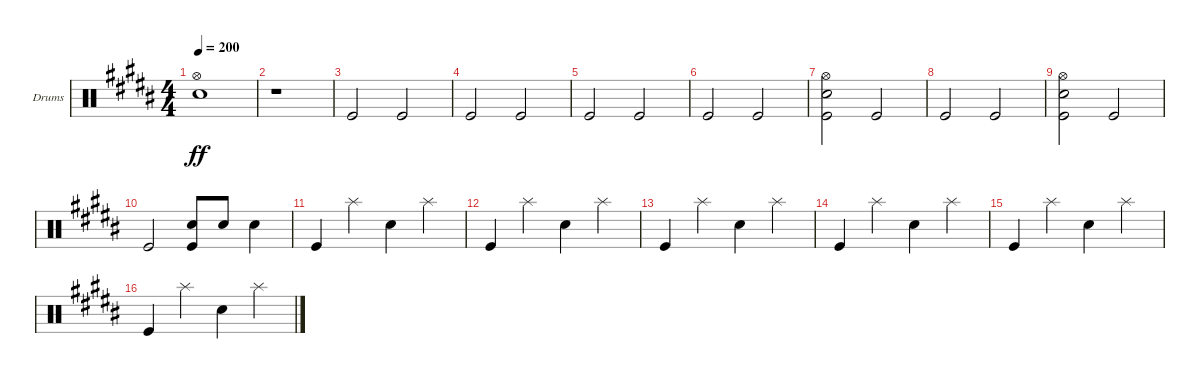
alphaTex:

\defaultSystemsLayout 4
\bracketExtendMode groupsimilarinstruments
\firstSystemTrackNameOrientation horizontal
\otherSystemsTrackNameOrientation horizontal
\track ("Drumkit" "Drums") {instrument percussion}
\staff {score}
\articulation defaults
\ts (4 4)
\tempo 200
\clef neutral
\ks b
("Hi-Hat (open)" "Snare (hit) 2").1{dy ff} |
r.1 |
"Kick (hit)".2 "Kick (hit)".2 |
"Kick (hit)".2 "Kick (hit)".2 |
"Kick (hit)".2 "Kick (hit)".2 |
"Kick (hit)".2 "Kick (hit)".2 |
("Kick (hit)" "Snare (hit) 2" "Hi-Hat (open)").2 "Kick (hit)".2 |
"Kick (hit)".2 "Kick (hit)".2 |
("Kick (hit)" "Hi-Hat (open)" "Snare (hit) 2").2 "Kick (hit)".2 |
"Kick (hit)".2 ("Kick (hit)" "Snare (hit) 2").8 "Snare (hit) 2".8 "Snare (hit) 2".4 |
"Kick (hit)".4 "Splash (hit)".4 "Snare (hit) 2".4 "Splash (hit)".4 |
"Kick (hit)".4 "Splash (hit)".4 "Snare (hit) 2".4 "Splash (hit)".4 |
"Kick (hit)".4 "Splash (hit)".4 "Snare (hit) 2".4 "Splash (hit)".4 |
"Kick (hit)".4 "Splash (hit)".4 "Snare (hit) 2".4 "Splash (hit)".4 |
"Kick (hit)".4 "Splash (hit)".4 "Snare (hit) 2".4 "Splash (hit)".4 |
"Kick (hit)".4 "Splash (hit)".4 "Snare (hit) 2".4 "Splash (hit)".4
